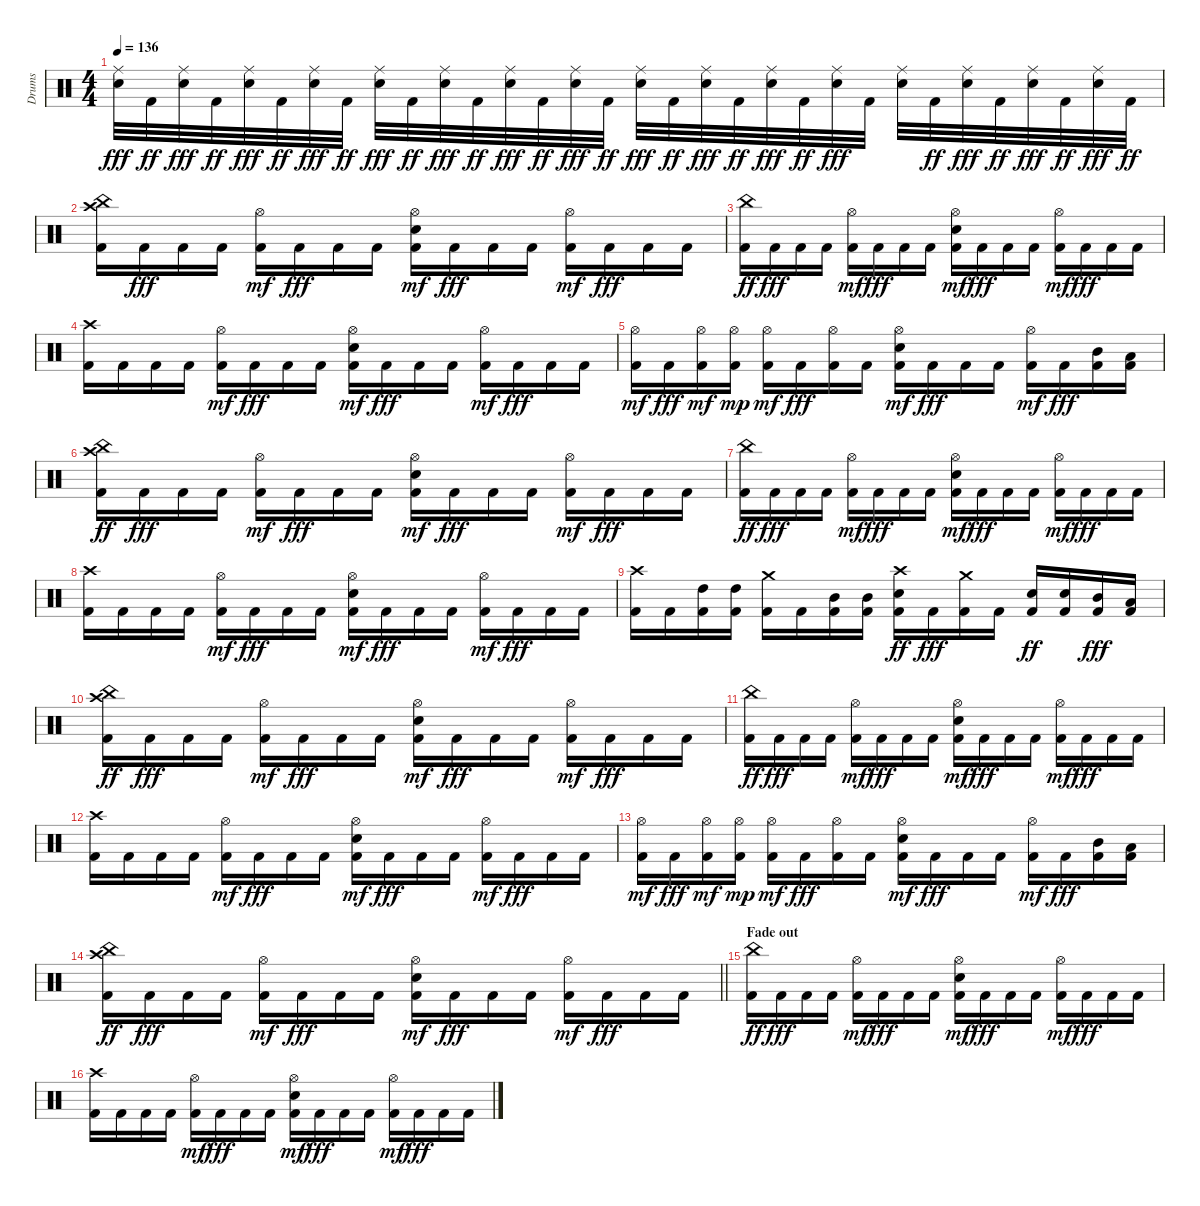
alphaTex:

\track ("Drums" "Drums") {instrument percussion}
\staff {score}
\articulation defaults
\ts (4 4)
\tempo 136
\clef neutral
\ks c
("Snare (hit) 2" "Ride (middle)").32{dy fff} "Kick (hit) 2".32{dy ff} ("Snare (hit) 2" "Ride (middle)").32{dy fff} "Kick (hit) 2".32{dy ff} ("Snare (hit) 2" "Ride (middle)").32{dy fff} "Kick (hit) 2".32{dy ff} ("Snare (hit) 2" "Ride (middle)").32{dy fff} "Kick (hit) 2".32{dy ff} ("Snare (hit) 2" "Ride (middle)").32{dy fff} "Kick (hit) 2".32{dy ff} ("Snare (hit) 2" "Ride (middle)").32{dy fff} "Kick (hit) 2".32{dy ff} ("Snare (hit) 2" "Ride (middle)").32{dy fff} "Kick (hit) 2".32{dy ff} ("Snare (hit) 2" "Ride (middle)").32{dy fff} "Kick (hit) 2".32{dy ff} ("Snare (hit) 2" "Ride (middle)").32{dy fff} "Kick (hit) 2".32{dy ff} ("Snare (hit) 2" "Ride (middle)").32{dy fff} "Kick (hit) 2".32{dy ff} ("Snare (hit) 2" "Ride (middle)").32{dy fff} "Kick (hit) 2".32{dy ff} ("Snare (hit) 2" "Ride (middle)").32{dy fff} "Kick (hit) 2".32 ("Snare (hit) 2" "Ride (middle)").32 "Kick (hit) 2".32{dy ff} ("Snare (hit) 2" "Ride (middle)").32{dy fff} "Kick (hit) 2".32{dy ff} ("Snare (hit) 2" "Ride (middle)").32{dy fff} "Kick (hit) 2".32{dy ff} ("Snare (hit) 2" "Ride (middle)").32{dy fff} "Kick (hit) 2".32{dy ff} |
("Kick (hit) 2" "China (hit)" "Crash high (hit)").16 "Kick (hit) 2".16{dy fff} "Kick (hit) 2".16 "Kick (hit) 2".16 ("Kick (hit) 2" "Hi-Hat (open)").16{dy mf} "Kick (hit) 2".16{dy fff} "Kick (hit) 2".16 "Kick (hit) 2".16 ("Kick (hit) 2" "Snare (hit) 2" "Hi-Hat (open)").16{dy mf} "Kick (hit) 2".16{dy fff} "Kick (hit) 2".16 "Kick (hit) 2".16 ("Kick (hit) 2" "Hi-Hat (open)").16{dy mf} "Kick (hit) 2".16{dy fff} "Kick (hit) 2".16 "Kick (hit) 2".16 |
("Kick (hit) 2" "China (hit)").16{dy ff} "Kick (hit) 2".16{dy fff} "Kick (hit) 2".16 "Kick (hit) 2".16 ("Kick (hit) 2" "Hi-Hat (open)").16{dy mf} "Kick (hit) 2".16{dy fff} "Kick (hit) 2".16 "Kick (hit) 2".16 ("Kick (hit) 2" "Snare (hit) 2" "Hi-Hat (open)").16{dy mf} "Kick (hit) 2".16{dy fff} "Kick (hit) 2".16 "Kick (hit) 2".16 ("Kick (hit) 2" "Hi-Hat (open)").16{dy mf} "Kick (hit) 2".16{dy fff} "Kick (hit) 2".16 "Kick (hit) 2".16 |
("Kick (hit) 2" "Crash high (hit)").16 "Kick (hit) 2".16 "Kick (hit) 2".16 "Kick (hit) 2".16 ("Kick (hit) 2" "Hi-Hat (open)").16{dy mf} "Kick (hit) 2".16{dy fff} "Kick (hit) 2".16 "Kick (hit) 2".16 ("Kick (hit) 2" "Snare (hit) 2" "Hi-Hat (open)").16{dy mf} "Kick (hit) 2".16{dy fff} "Kick (hit) 2".16 "Kick (hit) 2".16 ("Kick (hit) 2" "Hi-Hat (open)").16{dy mf} "Kick (hit) 2".16{dy fff} "Kick (hit) 2".16 "Kick (hit) 2".16 |
("Kick (hit) 2" "Hi-Hat (open)").16{dy mf} "Kick (hit) 2".16{dy fff} ("Kick (hit) 2" "Hi-Hat (open)").16{dy mf} ("Kick (hit) 2" "Hi-Hat (open)").16{dy mp} ("Kick (hit) 2" "Hi-Hat (open)").16{dy mf} "Kick (hit) 2".16{dy fff} ("Kick (hit) 2" "Hi-Hat (open)").16 "Kick (hit) 2".16 ("Kick (hit) 2" "Snare (hit) 2" "Hi-Hat (open)").16{dy mf} "Kick (hit) 2".16{dy fff} "Kick (hit) 2".16 "Kick (hit) 2".16 ("Kick (hit) 2" "Hi-Hat (open)").16{dy mf} "Kick (hit) 2".16{dy fff} ("Kick (hit) 2" "Mid Tom (hit)").16 ("Kick (hit) 2" "Low Tom (hit)").16 |
("Kick (hit) 2" "China (hit)" "Crash high (hit)").16{dy ff} "Kick (hit) 2".16{dy fff} "Kick (hit) 2".16 "Kick (hit) 2".16 ("Kick (hit) 2" "Hi-Hat (open)").16{dy mf} "Kick (hit) 2".16{dy fff} "Kick (hit) 2".16 "Kick (hit) 2".16 ("Kick (hit) 2" "Snare (hit) 2" "Hi-Hat (open)").16{dy mf} "Kick (hit) 2".16{dy fff} "Kick (hit) 2".16 "Kick (hit) 2".16 ("Kick (hit) 2" "Hi-Hat (open)").16{dy mf} "Kick (hit) 2".16{dy fff} "Kick (hit) 2".16 "Kick (hit) 2".16 |
("Kick (hit) 2" "China (hit)").16{dy ff} "Kick (hit) 2".16{dy fff} "Kick (hit) 2".16 "Kick (hit) 2".16 ("Kick (hit) 2" "Hi-Hat (open)").16{dy mf} "Kick (hit) 2".16{dy fff} "Kick (hit) 2".16 "Kick (hit) 2".16 ("Kick (hit) 2" "Snare (hit) 2" "Hi-Hat (open)").16{dy mf} "Kick (hit) 2".16{dy fff} "Kick (hit) 2".16 "Kick (hit) 2".16 ("Kick (hit) 2" "Hi-Hat (open)").16{dy mf} "Kick (hit) 2".16{dy fff} "Kick (hit) 2".16 "Kick (hit) 2".16 |
("Kick (hit) 2" "Crash high (hit)").16 "Kick (hit) 2".16 "Kick (hit) 2".16 "Kick (hit) 2".16 ("Kick (hit) 2" "Hi-Hat (open)").16{dy mf} "Kick (hit) 2".16{dy fff} "Kick (hit) 2".16 "Kick (hit) 2".16 ("Kick (hit) 2" "Snare (hit) 2" "Hi-Hat (open)").16{dy mf} "Kick (hit) 2".16{dy fff} "Kick (hit) 2".16 "Kick (hit) 2".16 ("Kick (hit) 2" "Hi-Hat (open)").16{dy mf} "Kick (hit) 2".16{dy fff} "Kick (hit) 2".16 "Kick (hit) 2".16 |
("Kick (hit) 2" "Crash high (hit)").16 "Kick (hit) 2".16 ("Kick (hit) 2" "High Tom (hit)").16 ("Kick (hit) 2" "High Tom (hit)").16 ("Kick (hit) 2" "Crash medium (hit)").16 "Kick (hit) 2".16 ("Kick (hit) 2" "Mid Tom (hit)").16 ("Kick (hit) 2" "Mid Tom (hit)").16 ("Kick (hit) 2" "Snare (hit) 2" "Crash high (hit)").16{dy ff} "Kick (hit) 2".16{dy fff} ("Kick (hit) 2" "Crash medium (hit)").16 "Kick (hit) 2".16 ("Kick (hit) 2" "Snare (hit) 2").16{dy ff} ("Kick (hit) 2" "Snare (hit) 2").16 ("Kick (hit) 2" "Mid Tom (hit)").16{dy fff} ("Kick (hit) 2" "Low Tom (hit)").16 |
("Kick (hit) 2" "China (hit)" "Crash high (hit)").16{dy ff} "Kick (hit) 2".16{dy fff} "Kick (hit) 2".16 "Kick (hit) 2".16 ("Kick (hit) 2" "Hi-Hat (open)").16{dy mf} "Kick (hit) 2".16{dy fff} "Kick (hit) 2".16 "Kick (hit) 2".16 ("Kick (hit) 2" "Snare (hit) 2" "Hi-Hat (open)").16{dy mf} "Kick (hit) 2".16{dy fff} "Kick (hit) 2".16 "Kick (hit) 2".16 ("Kick (hit) 2" "Hi-Hat (open)").16{dy mf} "Kick (hit) 2".16{dy fff} "Kick (hit) 2".16 "Kick (hit) 2".16 |
("Kick (hit) 2" "China (hit)").16{dy ff} "Kick (hit) 2".16{dy fff} "Kick (hit) 2".16 "Kick (hit) 2".16 ("Kick (hit) 2" "Hi-Hat (open)").16{dy mf} "Kick (hit) 2".16{dy fff} "Kick (hit) 2".16 "Kick (hit) 2".16 ("Kick (hit) 2" "Snare (hit) 2" "Hi-Hat (open)").16{dy mf} "Kick (hit) 2".16{dy fff} "Kick (hit) 2".16 "Kick (hit) 2".16 ("Kick (hit) 2" "Hi-Hat (open)").16{dy mf} "Kick (hit) 2".16{dy fff} "Kick (hit) 2".16 "Kick (hit) 2".16 |
("Kick (hit) 2" "Crash high (hit)").16 "Kick (hit) 2".16 "Kick (hit) 2".16 "Kick (hit) 2".16 ("Kick (hit) 2" "Hi-Hat (open)").16{dy mf} "Kick (hit) 2".16{dy fff} "Kick (hit) 2".16 "Kick (hit) 2".16 ("Kick (hit) 2" "Snare (hit) 2" "Hi-Hat (open)").16{dy mf} "Kick (hit) 2".16{dy fff} "Kick (hit) 2".16 "Kick (hit) 2".16 ("Kick (hit) 2" "Hi-Hat (open)").16{dy mf} "Kick (hit) 2".16{dy fff} "Kick (hit) 2".16 "Kick (hit) 2".16 |
("Kick (hit) 2" "Hi-Hat (open)").16{dy mf} "Kick (hit) 2".16{dy fff} ("Kick (hit) 2" "Hi-Hat (open)").16{dy mf} ("Kick (hit) 2" "Hi-Hat (open)").16{dy mp} ("Kick (hit) 2" "Hi-Hat (open)").16{dy mf} "Kick (hit) 2".16{dy fff} ("Kick (hit) 2" "Hi-Hat (open)").16 "Kick (hit) 2".16 ("Kick (hit) 2" "Snare (hit) 2" "Hi-Hat (open)").16{dy mf} "Kick (hit) 2".16{dy fff} "Kick (hit) 2".16 "Kick (hit) 2".16 ("Kick (hit) 2" "Hi-Hat (open)").16{dy mf} "Kick (hit) 2".16{dy fff} ("Kick (hit) 2" "Mid Tom (hit)").16 ("Kick (hit) 2" "Low Tom (hit)").16 |
\barLineRight lightlight
("Kick (hit) 2" "China (hit)" "Crash high (hit)").16{dy ff} "Kick (hit) 2".16{dy fff} "Kick (hit) 2".16 "Kick (hit) 2".16 ("Kick (hit) 2" "Hi-Hat (open)").16{dy mf} "Kick (hit) 2".16{dy fff} "Kick (hit) 2".16 "Kick (hit) 2".16 ("Kick (hit) 2" "Snare (hit) 2" "Hi-Hat (open)").16{dy mf} "Kick (hit) 2".16{dy fff} "Kick (hit) 2".16 "Kick (hit) 2".16 ("Kick (hit) 2" "Hi-Hat (open)").16{dy mf} "Kick (hit) 2".16{dy fff} "Kick (hit) 2".16 "Kick (hit) 2".16 |
\section ("" "Fade out")
("Kick (hit) 2" "China (hit)").16{dy ff} "Kick (hit) 2".16{dy fff} "Kick (hit) 2".16 "Kick (hit) 2".16 ("Kick (hit) 2" "Hi-Hat (open)").16{dy mf} "Kick (hit) 2".16{dy fff} "Kick (hit) 2".16 "Kick (hit) 2".16 ("Kick (hit) 2" "Snare (hit) 2" "Hi-Hat (open)").16{dy mf} "Kick (hit) 2".16{dy fff} "Kick (hit) 2".16 "Kick (hit) 2".16 ("Kick (hit) 2" "Hi-Hat (open)").16{dy mf} "Kick (hit) 2".16{dy fff} "Kick (hit) 2".16 "Kick (hit) 2".16 |
("Kick (hit) 2" "Crash high (hit)").16 "Kick (hit) 2".16 "Kick (hit) 2".16 "Kick (hit) 2".16 ("Kick (hit) 2" "Hi-Hat (open)").16{dy mf} "Kick (hit) 2".16{dy fff} "Kick (hit) 2".16 "Kick (hit) 2".16 ("Kick (hit) 2" "Snare (hit) 2" "Hi-Hat (open)").16{dy mf} "Kick (hit) 2".16{dy fff} "Kick (hit) 2".16 "Kick (hit) 2".16 ("Kick (hit) 2" "Hi-Hat (open)").16{dy mf} "Kick (hit) 2".16{dy fff} "Kick (hit) 2".16 "Kick (hit) 2".16
